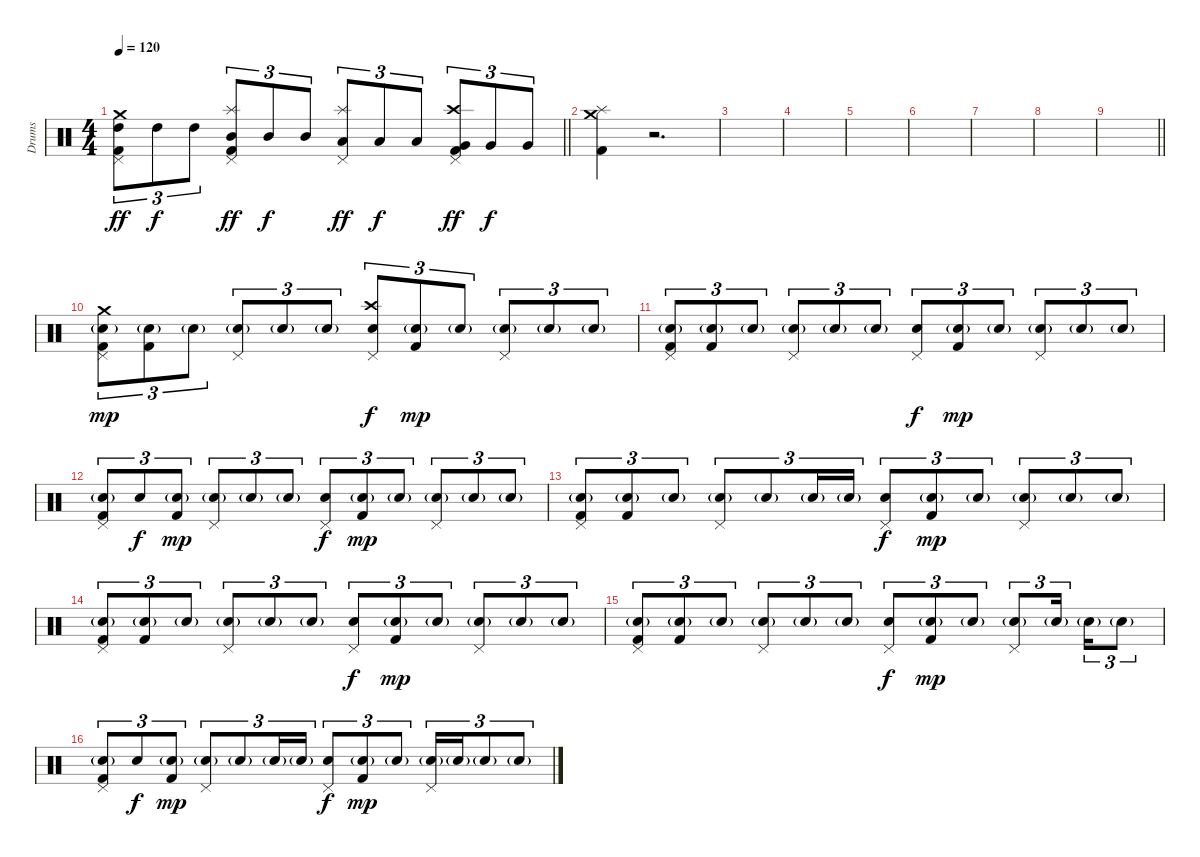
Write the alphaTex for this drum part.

\track ("Drums" "Drums") {instrument percussion}
\staff {score}
\articulation defaults
\ts (4 4)
\tempo 120
\clef neutral
\barLineRight lightlight
\ks c
("Crash medium (hit)" "High Tom (hit)" "Pedal Hi-Hat (hit)" "Kick (hit) 2").8{tu (3 2) dy ff} "High Tom (hit)".8{tu (3 2) dy f} "High Tom (hit)".8{tu (3 2)} ("Splash (hit)" "Mid Tom (hit)" "Pedal Hi-Hat (hit)" "Kick (hit) 2").8{tu (3 2) dy ff} "Mid Tom (hit)".8{tu (3 2) dy f} "Mid Tom (hit)".8{tu (3 2)} ("Splash (hit)" "Pedal Hi-Hat (hit)" "Low Tom (hit)").8{tu (3 2) dy ff} "Low Tom (hit)".8{tu (3 2) dy f} "Low Tom (hit)".8{tu (3 2)} ("Crash high (hit)" "Pedal Hi-Hat (hit)" "Very Low Tom (hit)" "Kick (hit) 2").8{tu (3 2) dy ff} "Very Low Tom (hit)".8{tu (3 2) dy f} "Very Low Tom (hit)".8{tu (3 2)} |
\section ("" "")
("Crash medium (hit)" "Splash (hit)" "Kick (hit) 2").4 r.2{d volume 0} |
|
|
|
|
|
|
\barLineRight lightlight
|
\section ("" "")
("Crash medium (hit)" "Pedal Hi-Hat (hit)" "Electric Snare (hit)"{g} "Kick (hit) 2").8{tu (3 2) dy mp volume 13} ("Electric Snare (hit)"{g} "Kick (hit) 2").8{tu (3 2)} "Electric Snare (hit)"{g}.8{tu (3 2)} ("Pedal Hi-Hat (hit)" "Electric Snare (hit)"{g}).8{tu (3 2)} "Electric Snare (hit)"{g}.8{tu (3 2)} "Electric Snare (hit)"{g}.8{tu (3 2)} ("Crash high (hit)" "Pedal Hi-Hat (hit)" "Electric Snare (hit)").8{tu (3 2) dy f} ("Electric Snare (hit)"{g} "Kick (hit) 2").8{tu (3 2) dy mp} "Electric Snare (hit)"{g}.8{tu (3 2)} ("Pedal Hi-Hat (hit)" "Electric Snare (hit)"{g}).8{tu (3 2)} "Electric Snare (hit)"{g}.8{tu (3 2)} "Electric Snare (hit)"{g}.8{tu (3 2)} |
("Pedal Hi-Hat (hit)" "Electric Snare (hit)"{g} "Kick (hit) 2").8{tu (3 2)} ("Electric Snare (hit)"{g} "Kick (hit) 2").8{tu (3 2)} "Electric Snare (hit)"{g}.8{tu (3 2)} ("Pedal Hi-Hat (hit)" "Electric Snare (hit)"{g}).8{tu (3 2)} "Electric Snare (hit)"{g}.8{tu (3 2)} "Electric Snare (hit)"{g}.8{tu (3 2)} ("Pedal Hi-Hat (hit)" "Electric Snare (hit)").8{tu (3 2) dy f} ("Electric Snare (hit)"{g} "Kick (hit) 2").8{tu (3 2) dy mp} "Electric Snare (hit)"{g}.8{tu (3 2)} ("Pedal Hi-Hat (hit)" "Electric Snare (hit)"{g}).8{tu (3 2)} "Electric Snare (hit)"{g}.8{tu (3 2)} "Electric Snare (hit)"{g}.8{tu (3 2)} |
("Pedal Hi-Hat (hit)" "Electric Snare (hit)"{g} "Kick (hit) 2").8{tu (3 2)} "Electric Snare (hit)".8{tu (3 2) dy f} ("Electric Snare (hit)"{g} "Kick (hit) 2").8{tu (3 2) dy mp} ("Pedal Hi-Hat (hit)" "Electric Snare (hit)"{g}).8{tu (3 2)} "Electric Snare (hit)"{g}.8{tu (3 2)} "Electric Snare (hit)"{g}.8{tu (3 2)} ("Pedal Hi-Hat (hit)" "Electric Snare (hit)").8{tu (3 2) dy f} ("Electric Snare (hit)"{g} "Kick (hit) 2").8{tu (3 2) dy mp} "Electric Snare (hit)"{g}.8{tu (3 2)} ("Pedal Hi-Hat (hit)" "Electric Snare (hit)"{g}).8{tu (3 2)} "Electric Snare (hit)"{g}.8{tu (3 2)} "Electric Snare (hit)"{g}.8{tu (3 2)} |
("Pedal Hi-Hat (hit)" "Electric Snare (hit)"{g} "Kick (hit) 2").8{tu (3 2)} ("Electric Snare (hit)"{g} "Kick (hit) 2").8{tu (3 2)} "Electric Snare (hit)"{g}.8{tu (3 2)} ("Pedal Hi-Hat (hit)" "Electric Snare (hit)"{g}).8{tu (3 2)} "Electric Snare (hit)"{g}.8{tu (3 2)} "Electric Snare (hit)"{g}.16{tu (3 2)} "Electric Snare (hit)"{g}.16{tu (3 2)} ("Pedal Hi-Hat (hit)" "Electric Snare (hit)").8{tu (3 2) dy f} ("Electric Snare (hit)"{g} "Kick (hit) 2").8{tu (3 2) dy mp} "Electric Snare (hit)"{g}.8{tu (3 2)} ("Pedal Hi-Hat (hit)" "Electric Snare (hit)"{g}).8{tu (3 2)} "Electric Snare (hit)"{g}.8{tu (3 2)} "Electric Snare (hit)"{g}.8{tu (3 2)} |
("Pedal Hi-Hat (hit)" "Electric Snare (hit)"{g} "Kick (hit) 2").8{tu (3 2)} ("Electric Snare (hit)"{g} "Kick (hit) 2").8{tu (3 2)} "Electric Snare (hit)"{g}.8{tu (3 2)} ("Pedal Hi-Hat (hit)" "Electric Snare (hit)"{g}).8{tu (3 2)} "Electric Snare (hit)"{g}.8{tu (3 2)} "Electric Snare (hit)"{g}.8{tu (3 2)} ("Pedal Hi-Hat (hit)" "Electric Snare (hit)").8{tu (3 2) dy f} ("Electric Snare (hit)"{g} "Kick (hit) 2").8{tu (3 2) dy mp} "Electric Snare (hit)"{g}.8{tu (3 2)} ("Pedal Hi-Hat (hit)" "Electric Snare (hit)"{g}).8{tu (3 2)} "Electric Snare (hit)"{g}.8{tu (3 2)} "Electric Snare (hit)"{g}.8{tu (3 2)} |
("Pedal Hi-Hat (hit)" "Electric Snare (hit)"{g} "Kick (hit) 2").8{tu (3 2)} ("Electric Snare (hit)"{g} "Kick (hit) 2").8{tu (3 2)} "Electric Snare (hit)"{g}.8{tu (3 2)} ("Pedal Hi-Hat (hit)" "Electric Snare (hit)"{g}).8{tu (3 2)} "Electric Snare (hit)"{g}.8{tu (3 2)} "Electric Snare (hit)"{g}.8{tu (3 2)} ("Pedal Hi-Hat (hit)" "Electric Snare (hit)").8{tu (3 2) dy f} ("Electric Snare (hit)"{g} "Kick (hit) 2").8{tu (3 2) dy mp} "Electric Snare (hit)"{g}.8{tu (3 2)} ("Pedal Hi-Hat (hit)" "Electric Snare (hit)"{g}).8{tu (3 2)} "Electric Snare (hit)"{g}.16{tu (3 2) beam splitsecondary} "Electric Snare (hit)"{g}.16{tu (3 2)} "Electric Snare (hit)"{g}.8{tu (3 2)} |
("Pedal Hi-Hat (hit)" "Electric Snare (hit)"{g} "Kick (hit) 2").8{tu (3 2)} "Electric Snare (hit)".8{tu (3 2) dy f} ("Electric Snare (hit)"{g} "Kick (hit) 2").8{tu (3 2) dy mp} ("Pedal Hi-Hat (hit)" "Electric Snare (hit)"{g}).8{tu (3 2)} "Electric Snare (hit)"{g}.8{tu (3 2)} "Electric Snare (hit)"{g}.16{tu (3 2)} "Electric Snare (hit)"{g}.16{tu (3 2)} ("Pedal Hi-Hat (hit)" "Electric Snare (hit)").8{tu (3 2) dy f} ("Electric Snare (hit)"{g} "Kick (hit) 2").8{tu (3 2) dy mp} "Electric Snare (hit)"{g}.8{tu (3 2)} ("Pedal Hi-Hat (hit)" "Electric Snare (hit)"{g}).16{tu (3 2)} "Electric Snare (hit)"{g}.16{tu (3 2)} "Electric Snare (hit)"{g}.8{tu (3 2)} "Electric Snare (hit)"{g}.8{tu (3 2)}
